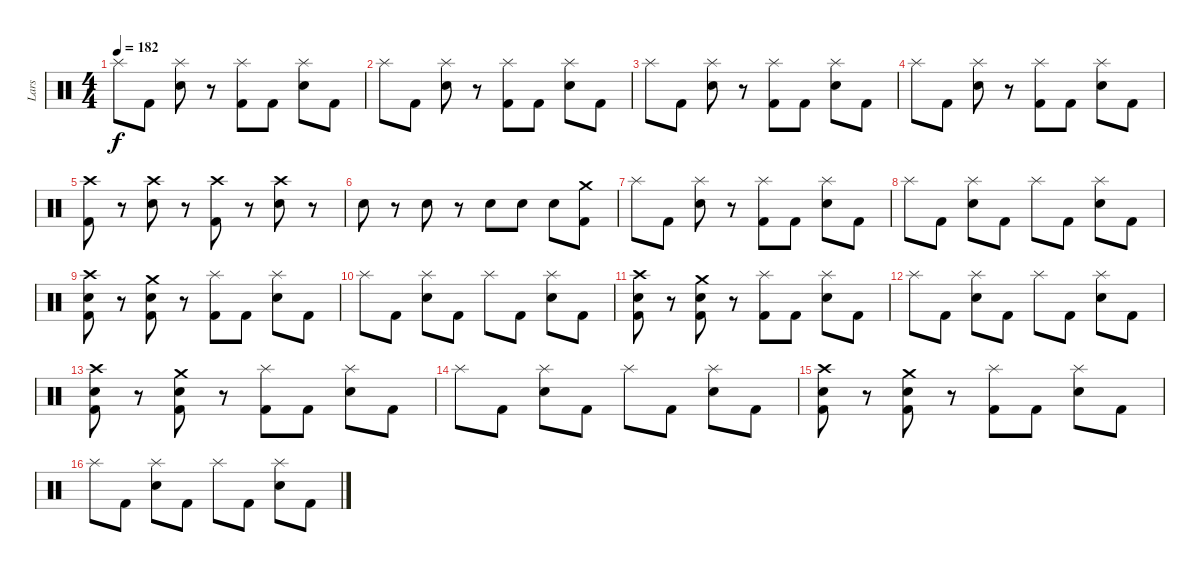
\track ("Lars" "Lars") {instrument percussion}
\staff {score}
\articulation defaults
\ts (4 4)
\tempo 182
\clef neutral
\ks c "Splash (hit)".8{dy f} "Kick (hit) 2".8
("Splash (hit)" "Snare (hit) 2").8 r.8 ("Splash (hit)" "Kick (hit) 2").8 "Kick (hit) 2".8 ("Splash (hit)" "Snare (hit) 2").8 "Kick (hit) 2".8 |
"Splash (hit)".8 "Kick (hit) 2".8 ("Splash (hit)" "Snare (hit) 2").8 r.8 ("Splash (hit)" "Kick (hit) 2").8 "Kick (hit) 2".8 ("Splash (hit)" "Snare (hit) 2").8 "Kick (hit) 2".8 |
"Splash (hit)".8 "Kick (hit) 2".8 ("Splash (hit)" "Snare (hit) 2").8 r.8 ("Splash (hit)" "Kick (hit) 2").8 "Kick (hit) 2".8 ("Splash (hit)" "Snare (hit) 2").8 "Kick (hit) 2".8 |
"Splash (hit)".8 "Kick (hit) 2".8 ("Splash (hit)" "Snare (hit) 2").8 r.8 ("Splash (hit)" "Kick (hit) 2").8 "Kick (hit) 2".8 ("Splash (hit)" "Snare (hit) 2").8 "Kick (hit) 2".8 |
("Crash high (hit)" "Kick (hit) 2").8 r.8 ("Crash high (hit)" "Snare (hit) 2").8 r.8 ("Crash high (hit)" "Kick (hit) 2").8 r.8 ("Crash high (hit)" "Snare (hit) 2").8 r.8 |
"Snare (hit) 2".8 r.8 "Snare (hit) 2".8 r.8 "Snare (hit) 2".8 "Snare (hit) 2".8 "Snare (hit) 2".8 ("Crash medium (hit)" "Kick (hit) 2").8 |
"Splash (hit)".8 "Kick (hit) 2".8 ("Splash (hit)" "Snare (hit) 2").8 r.8 ("Splash (hit)" "Kick (hit) 2").8 "Kick (hit) 2".8 ("Splash (hit)" "Snare (hit) 2").8 "Kick (hit) 2".8 |
"Splash (hit)".8 "Kick (hit) 2".8 ("Splash (hit)" "Snare (hit) 2").8 "Kick (hit) 2".8 "Splash (hit)".8 "Kick (hit) 2".8 ("Splash (hit)" "Snare (hit) 2").8 "Kick (hit) 2".8 |
("Crash high (hit)" "Snare (hit) 2" "Kick (hit) 2").8 r.8 ("Crash medium (hit)" "Snare (hit) 2" "Kick (hit) 2").8 r.8 ("Splash (hit)" "Kick (hit) 2").8 "Kick (hit) 2".8 ("Splash (hit)" "Snare (hit) 2").8 "Kick (hit) 2".8 |
"Splash (hit)".8 "Kick (hit) 2".8 ("Splash (hit)" "Snare (hit) 2").8 "Kick (hit) 2".8 "Splash (hit)".8 "Kick (hit) 2".8 ("Splash (hit)" "Snare (hit) 2").8 "Kick (hit) 2".8 |
("Crash high (hit)" "Snare (hit) 2" "Kick (hit) 2").8 r.8 ("Crash medium (hit)" "Snare (hit) 2" "Kick (hit) 2").8 r.8 ("Splash (hit)" "Kick (hit) 2").8 "Kick (hit) 2".8 ("Splash (hit)" "Snare (hit) 2").8 "Kick (hit) 2".8 |
"Splash (hit)".8 "Kick (hit) 2".8 ("Splash (hit)" "Snare (hit) 2").8 "Kick (hit) 2".8 "Splash (hit)".8 "Kick (hit) 2".8 ("Splash (hit)" "Snare (hit) 2").8 "Kick (hit) 2".8 |
("Crash high (hit)" "Snare (hit) 2" "Kick (hit) 2").8 r.8 ("Crash medium (hit)" "Snare (hit) 2" "Kick (hit) 2").8 r.8 ("Splash (hit)" "Kick (hit) 2").8 "Kick (hit) 2".8 ("Splash (hit)" "Snare (hit) 2").8 "Kick (hit) 2".8 |
"Splash (hit)".8 "Kick (hit) 2".8 ("Splash (hit)" "Snare (hit) 2").8 "Kick (hit) 2".8 "Splash (hit)".8 "Kick (hit) 2".8 ("Splash (hit)" "Snare (hit) 2").8 "Kick (hit) 2".8 |
("Crash high (hit)" "Snare (hit) 2" "Kick (hit) 2").8 r.8 ("Crash medium (hit)" "Snare (hit) 2" "Kick (hit) 2").8 r.8 ("Splash (hit)" "Kick (hit) 2").8 "Kick (hit) 2".8 ("Splash (hit)" "Snare (hit) 2").8 "Kick (hit) 2".8 |
"Splash (hit)".8 "Kick (hit) 2".8 ("Splash (hit)" "Snare (hit) 2").8 "Kick (hit) 2".8 "Splash (hit)".8 "Kick (hit) 2".8 ("Splash (hit)" "Snare (hit) 2").8 "Kick (hit) 2".8
